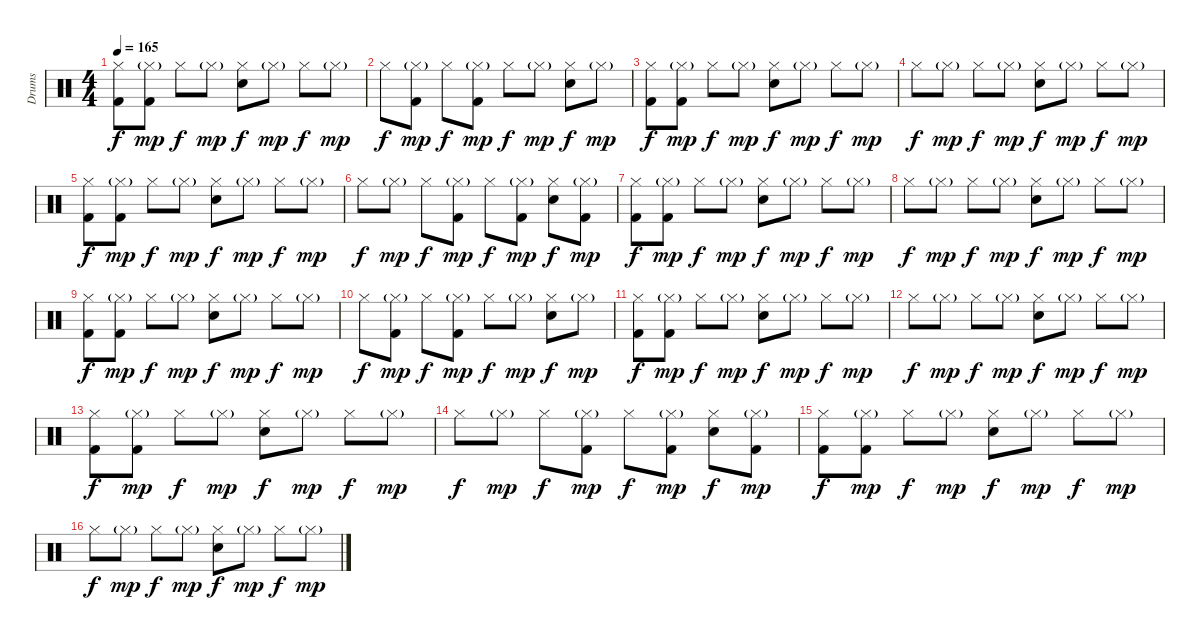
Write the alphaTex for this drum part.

\track ("Drums" "Drums") {instrument percussion}
\staff {score}
\articulation defaults
\ts (4 4)
\tempo 165
\clef neutral
\ks c
("Hi-Hat (closed)" "Kick (hit) 2").8{dy f} ("Hi-Hat (closed)"{g} "Kick (hit) 2").8{dy mp} "Hi-Hat (closed)".8{dy f} "Hi-Hat (closed)"{g}.8{dy mp} ("Hi-Hat (closed)" "Electric Snare (hit)").8{dy f} "Hi-Hat (closed)"{g}.8{dy mp} "Hi-Hat (closed)".8{dy f} "Hi-Hat (closed)"{g}.8{dy mp} |
"Hi-Hat (closed)".8{dy f} ("Hi-Hat (closed)"{g} "Kick (hit) 2").8{dy mp} "Hi-Hat (closed)".8{dy f} ("Hi-Hat (closed)"{g} "Kick (hit) 2").8{dy mp} "Hi-Hat (closed)".8{dy f} "Hi-Hat (closed)"{g}.8{dy mp} ("Hi-Hat (closed)" "Electric Snare (hit)").8{dy f} "Hi-Hat (closed)"{g}.8{dy mp} |
("Hi-Hat (closed)" "Kick (hit) 2").8{dy f} ("Hi-Hat (closed)"{g} "Kick (hit) 2").8{dy mp} "Hi-Hat (closed)".8{dy f} "Hi-Hat (closed)"{g}.8{dy mp} ("Hi-Hat (closed)" "Electric Snare (hit)").8{dy f} "Hi-Hat (closed)"{g}.8{dy mp} "Hi-Hat (closed)".8{dy f} "Hi-Hat (closed)"{g}.8{dy mp} |
"Hi-Hat (closed)".8{dy f} "Hi-Hat (closed)"{g}.8{dy mp} "Hi-Hat (closed)".8{dy f} "Hi-Hat (closed)"{g}.8{dy mp} ("Hi-Hat (closed)" "Electric Snare (hit)").8{dy f} "Hi-Hat (closed)"{g}.8{dy mp} "Hi-Hat (closed)".8{dy f} "Hi-Hat (closed)"{g}.8{dy mp} |
("Hi-Hat (closed)" "Kick (hit) 2").8{dy f} ("Hi-Hat (closed)"{g} "Kick (hit) 2").8{dy mp} "Hi-Hat (closed)".8{dy f} "Hi-Hat (closed)"{g}.8{dy mp} ("Hi-Hat (closed)" "Electric Snare (hit)").8{dy f} "Hi-Hat (closed)"{g}.8{dy mp} "Hi-Hat (closed)".8{dy f} "Hi-Hat (closed)"{g}.8{dy mp} |
"Hi-Hat (closed)".8{dy f} "Hi-Hat (closed)"{g}.8{dy mp} "Hi-Hat (closed)".8{dy f} ("Hi-Hat (closed)"{g} "Kick (hit) 2").8{dy mp} "Hi-Hat (closed)".8{dy f} ("Hi-Hat (closed)"{g} "Kick (hit) 2").8{dy mp} ("Hi-Hat (closed)" "Electric Snare (hit)").8{dy f} ("Hi-Hat (closed)"{g} "Kick (hit) 2").8{dy mp} |
("Hi-Hat (closed)" "Kick (hit) 2").8{dy f} ("Hi-Hat (closed)"{g} "Kick (hit) 2").8{dy mp} "Hi-Hat (closed)".8{dy f} "Hi-Hat (closed)"{g}.8{dy mp} ("Hi-Hat (closed)" "Electric Snare (hit)").8{dy f} "Hi-Hat (closed)"{g}.8{dy mp} "Hi-Hat (closed)".8{dy f} "Hi-Hat (closed)"{g}.8{dy mp} |
"Hi-Hat (closed)".8{dy f} "Hi-Hat (closed)"{g}.8{dy mp} "Hi-Hat (closed)".8{dy f} "Hi-Hat (closed)"{g}.8{dy mp} ("Hi-Hat (closed)" "Electric Snare (hit)").8{dy f} "Hi-Hat (closed)"{g}.8{dy mp} "Hi-Hat (closed)".8{dy f} "Hi-Hat (closed)"{g}.8{dy mp} |
("Hi-Hat (closed)" "Kick (hit) 2").8{dy f} ("Hi-Hat (closed)"{g} "Kick (hit) 2").8{dy mp} "Hi-Hat (closed)".8{dy f} "Hi-Hat (closed)"{g}.8{dy mp} ("Hi-Hat (closed)" "Electric Snare (hit)").8{dy f} "Hi-Hat (closed)"{g}.8{dy mp} "Hi-Hat (closed)".8{dy f} "Hi-Hat (closed)"{g}.8{dy mp} |
"Hi-Hat (closed)".8{dy f} ("Hi-Hat (closed)"{g} "Kick (hit) 2").8{dy mp} "Hi-Hat (closed)".8{dy f} ("Hi-Hat (closed)"{g} "Kick (hit) 2").8{dy mp} "Hi-Hat (closed)".8{dy f} "Hi-Hat (closed)"{g}.8{dy mp} ("Hi-Hat (closed)" "Electric Snare (hit)").8{dy f} "Hi-Hat (closed)"{g}.8{dy mp} |
("Hi-Hat (closed)" "Kick (hit) 2").8{dy f} ("Hi-Hat (closed)"{g} "Kick (hit) 2").8{dy mp} "Hi-Hat (closed)".8{dy f} "Hi-Hat (closed)"{g}.8{dy mp} ("Hi-Hat (closed)" "Electric Snare (hit)").8{dy f} "Hi-Hat (closed)"{g}.8{dy mp} "Hi-Hat (closed)".8{dy f} "Hi-Hat (closed)"{g}.8{dy mp} |
"Hi-Hat (closed)".8{dy f} "Hi-Hat (closed)"{g}.8{dy mp} "Hi-Hat (closed)".8{dy f} "Hi-Hat (closed)"{g}.8{dy mp} ("Hi-Hat (closed)" "Electric Snare (hit)").8{dy f} "Hi-Hat (closed)"{g}.8{dy mp} "Hi-Hat (closed)".8{dy f} "Hi-Hat (closed)"{g}.8{dy mp} |
("Hi-Hat (closed)" "Kick (hit) 2").8{dy f} ("Hi-Hat (closed)"{g} "Kick (hit) 2").8{dy mp} "Hi-Hat (closed)".8{dy f} "Hi-Hat (closed)"{g}.8{dy mp} ("Hi-Hat (closed)" "Electric Snare (hit)").8{dy f} "Hi-Hat (closed)"{g}.8{dy mp} "Hi-Hat (closed)".8{dy f} "Hi-Hat (closed)"{g}.8{dy mp} |
"Hi-Hat (closed)".8{dy f} "Hi-Hat (closed)"{g}.8{dy mp} "Hi-Hat (closed)".8{dy f} ("Hi-Hat (closed)"{g} "Kick (hit) 2").8{dy mp} "Hi-Hat (closed)".8{dy f} ("Hi-Hat (closed)"{g} "Kick (hit) 2").8{dy mp} ("Hi-Hat (closed)" "Electric Snare (hit)").8{dy f} ("Hi-Hat (closed)"{g} "Kick (hit) 2").8{dy mp} |
("Hi-Hat (closed)" "Kick (hit) 2").8{dy f} ("Hi-Hat (closed)"{g} "Kick (hit) 2").8{dy mp} "Hi-Hat (closed)".8{dy f} "Hi-Hat (closed)"{g}.8{dy mp} ("Hi-Hat (closed)" "Electric Snare (hit)").8{dy f} "Hi-Hat (closed)"{g}.8{dy mp} "Hi-Hat (closed)".8{dy f} "Hi-Hat (closed)"{g}.8{dy mp} |
"Hi-Hat (closed)".8{dy f} "Hi-Hat (closed)"{g}.8{dy mp} "Hi-Hat (closed)".8{dy f} "Hi-Hat (closed)"{g}.8{dy mp} ("Hi-Hat (closed)" "Electric Snare (hit)").8{dy f} "Hi-Hat (closed)"{g}.8{dy mp} "Hi-Hat (closed)".8{dy f} "Hi-Hat (closed)"{g}.8{dy mp}
